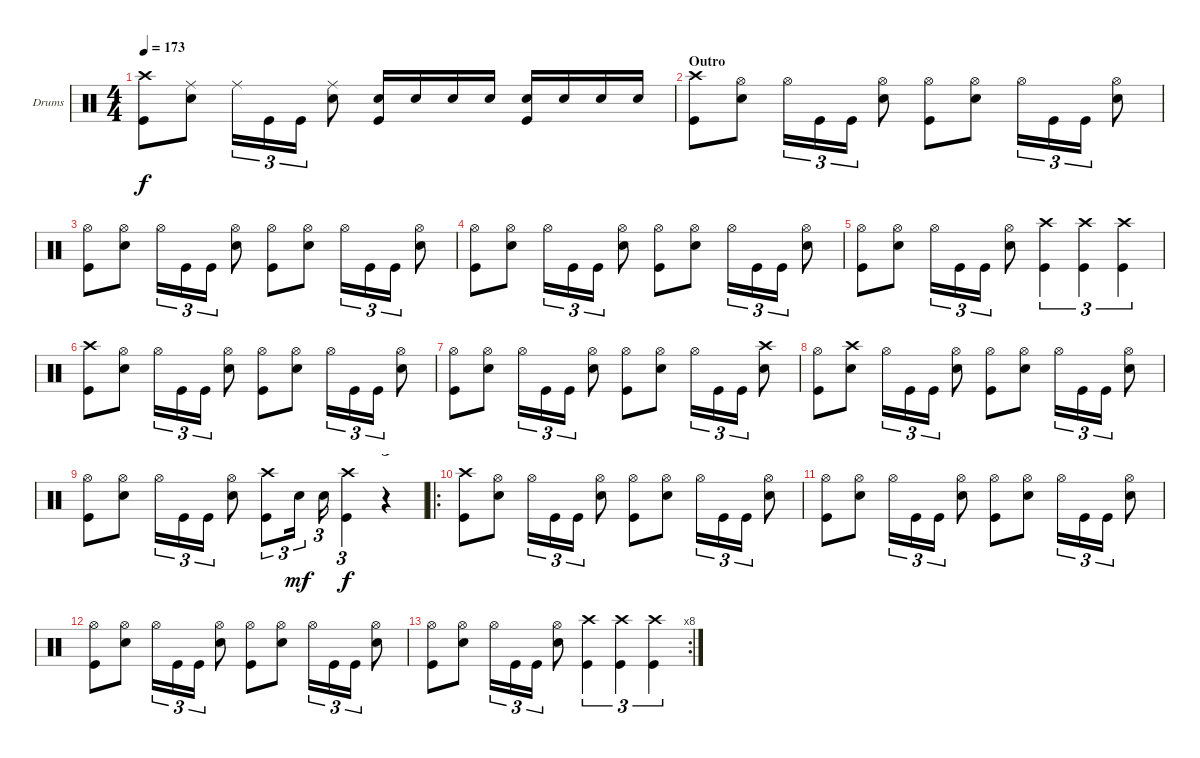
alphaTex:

\bracketExtendMode groupsimilarinstruments
\firstSystemTrackNameOrientation horizontal
\otherSystemsTrackNameOrientation horizontal
\track ("Drums" "Drums") {instrument percussion}
\staff {score}
\articulation defaults
\ts (4 4)
\tempo 173
\clef neutral
\ks c
("Kick (hit)" "Crash high (hit)").8{dy f} ("Snare (hit) 2" "Ride (middle)").8 "Ride (middle)".16{tu (3 2)} "Kick (hit)".16{tu (3 2)} "Kick (hit)".16{tu (3 2)} ("Snare (hit) 2" "Ride (middle)").8 ("Snare (hit) 2" "Kick (hit)").16 "Snare (hit) 2".16 "Snare (hit) 2".16 "Snare (hit) 2".16 ("Snare (hit) 2" "Kick (hit)").16 "Snare (hit) 2".16 "Snare (hit) 2".16 "Snare (hit) 2".16 |
\section ("" "Outro")
("Crash high (hit)" "Kick (hit)").8 ("Hi-Hat (open)" "Snare (hit) 2").8 "Hi-Hat (open)".16{tu (3 2)} "Kick (hit)".16{tu (3 2)} "Kick (hit)".16{tu (3 2)} ("Hi-Hat (open)" "Snare (hit) 2").8 ("Hi-Hat (open)" "Kick (hit)").8 ("Hi-Hat (open)" "Snare (hit) 2").8 "Hi-Hat (open)".16{tu (3 2)} "Kick (hit)".16{tu (3 2)} "Kick (hit)".16{tu (3 2)} ("Hi-Hat (open)" "Snare (hit) 2").8 |
("Hi-Hat (open)" "Kick (hit)").8 ("Hi-Hat (open)" "Snare (hit) 2").8 "Hi-Hat (open)".16{tu (3 2)} "Kick (hit)".16{tu (3 2)} "Kick (hit)".16{tu (3 2)} ("Hi-Hat (open)" "Snare (hit) 2").8 ("Hi-Hat (open)" "Kick (hit)").8 ("Hi-Hat (open)" "Snare (hit) 2").8 "Hi-Hat (open)".16{tu (3 2)} "Kick (hit)".16{tu (3 2)} "Kick (hit)".16{tu (3 2)} ("Hi-Hat (open)" "Snare (hit) 2").8 |
("Hi-Hat (open)" "Kick (hit)").8 ("Hi-Hat (open)" "Snare (hit) 2").8 "Hi-Hat (open)".16{tu (3 2)} "Kick (hit)".16{tu (3 2)} "Kick (hit)".16{tu (3 2)} ("Hi-Hat (open)" "Snare (hit) 2").8 ("Hi-Hat (open)" "Kick (hit)").8 ("Hi-Hat (open)" "Snare (hit) 2").8 "Hi-Hat (open)".16{tu (3 2)} "Kick (hit)".16{tu (3 2)} "Kick (hit)".16{tu (3 2)} ("Hi-Hat (open)" "Snare (hit) 2").8 |
("Hi-Hat (open)" "Kick (hit)").8 ("Hi-Hat (open)" "Snare (hit) 2").8 "Hi-Hat (open)".16{tu (3 2)} "Kick (hit)".16{tu (3 2)} "Kick (hit)".16{tu (3 2)} ("Hi-Hat (open)" "Snare (hit) 2").8 ("Crash high (hit)" "Kick (hit)").4{tu (3 2)} ("Crash high (hit)" "Kick (hit)").4{tu (3 2)} ("Crash high (hit)" "Kick (hit)").4{tu (3 2)} |
("Crash high (hit)" "Kick (hit)").8 ("Hi-Hat (open)" "Snare (hit) 2").8 "Hi-Hat (open)".16{tu (3 2)} "Kick (hit)".16{tu (3 2)} "Kick (hit)".16{tu (3 2)} ("Hi-Hat (open)" "Snare (hit) 2").8 ("Hi-Hat (open)" "Kick (hit)").8 ("Hi-Hat (open)" "Snare (hit) 2").8 "Hi-Hat (open)".16{tu (3 2)} "Kick (hit)".16{tu (3 2)} "Kick (hit)".16{tu (3 2)} ("Hi-Hat (open)" "Snare (hit) 2").8 |
("Hi-Hat (open)" "Kick (hit)").8 ("Hi-Hat (open)" "Snare (hit) 2").8 "Hi-Hat (open)".16{tu (3 2)} "Kick (hit)".16{tu (3 2)} "Kick (hit)".16{tu (3 2)} ("Hi-Hat (open)" "Snare (hit) 2").8 ("Hi-Hat (open)" "Kick (hit)").8 ("Hi-Hat (open)" "Snare (hit) 2").8 "Hi-Hat (open)".16{tu (3 2)} "Kick (hit)".16{tu (3 2)} "Kick (hit)".16{tu (3 2)} ("Snare (hit) 2" "Crash high (hit)").8 |
("Hi-Hat (open)" "Kick (hit)").8 ("Snare (hit) 2" "Crash high (hit)").8 "Hi-Hat (open)".16{tu (3 2)} "Kick (hit)".16{tu (3 2)} "Kick (hit)".16{tu (3 2)} ("Hi-Hat (open)" "Snare (hit) 2").8 ("Hi-Hat (open)" "Kick (hit)").8 ("Hi-Hat (open)" "Snare (hit) 2").8 "Hi-Hat (open)".16{tu (3 2)} "Kick (hit)".16{tu (3 2)} "Kick (hit)".16{tu (3 2)} ("Hi-Hat (open)" "Snare (hit) 2").8 |
("Hi-Hat (open)" "Kick (hit)").8 ("Hi-Hat (open)" "Snare (hit) 2").8 "Hi-Hat (open)".16{tu (3 2)} "Kick (hit)".16{tu (3 2)} "Kick (hit)".16{tu (3 2)} ("Hi-Hat (open)" "Snare (hit) 2").8 ("Crash high (hit)" "Kick (hit)").8{tu (3 2)} "Snare (hit) 2".16{tu (3 2) dy mf} "Snare (hit) 2".16{tu (3 2)} ("Crash high (hit)" "Kick (hit)").4{tu (3 2) dy f} r.4{tu (3 2)} |
\ro
("Crash high (hit)" "Kick (hit)").8 ("Hi-Hat (open)" "Snare (hit) 2").8 "Hi-Hat (open)".16{tu (3 2)} "Kick (hit)".16{tu (3 2)} "Kick (hit)".16{tu (3 2)} ("Hi-Hat (open)" "Snare (hit) 2").8 ("Hi-Hat (open)" "Kick (hit)").8 ("Hi-Hat (open)" "Snare (hit) 2").8 "Hi-Hat (open)".16{tu (3 2)} "Kick (hit)".16{tu (3 2)} "Kick (hit)".16{tu (3 2)} ("Hi-Hat (open)" "Snare (hit) 2").8 |
("Hi-Hat (open)" "Kick (hit)").8 ("Hi-Hat (open)" "Snare (hit) 2").8 "Hi-Hat (open)".16{tu (3 2)} "Kick (hit)".16{tu (3 2)} "Kick (hit)".16{tu (3 2)} ("Hi-Hat (open)" "Snare (hit) 2").8 ("Hi-Hat (open)" "Kick (hit)").8 ("Hi-Hat (open)" "Snare (hit) 2").8 "Hi-Hat (open)".16{tu (3 2)} "Kick (hit)".16{tu (3 2)} "Kick (hit)".16{tu (3 2)} ("Hi-Hat (open)" "Snare (hit) 2").8 |
("Hi-Hat (open)" "Kick (hit)").8 ("Hi-Hat (open)" "Snare (hit) 2").8 "Hi-Hat (open)".16{tu (3 2)} "Kick (hit)".16{tu (3 2)} "Kick (hit)".16{tu (3 2)} ("Hi-Hat (open)" "Snare (hit) 2").8 ("Hi-Hat (open)" "Kick (hit)").8 ("Hi-Hat (open)" "Snare (hit) 2").8 "Hi-Hat (open)".16{tu (3 2)} "Kick (hit)".16{tu (3 2)} "Kick (hit)".16{tu (3 2)} ("Hi-Hat (open)" "Snare (hit) 2").8 |
\rc 8
("Hi-Hat (open)" "Kick (hit)").8 ("Hi-Hat (open)" "Snare (hit) 2").8 "Hi-Hat (open)".16{tu (3 2)} "Kick (hit)".16{tu (3 2)} "Kick (hit)".16{tu (3 2)} ("Hi-Hat (open)" "Snare (hit) 2").8 ("Crash high (hit)" "Kick (hit)").4{tu (3 2)} ("Crash high (hit)" "Kick (hit)").4{tu (3 2)} ("Crash high (hit)" "Kick (hit)").4{tu (3 2)}
